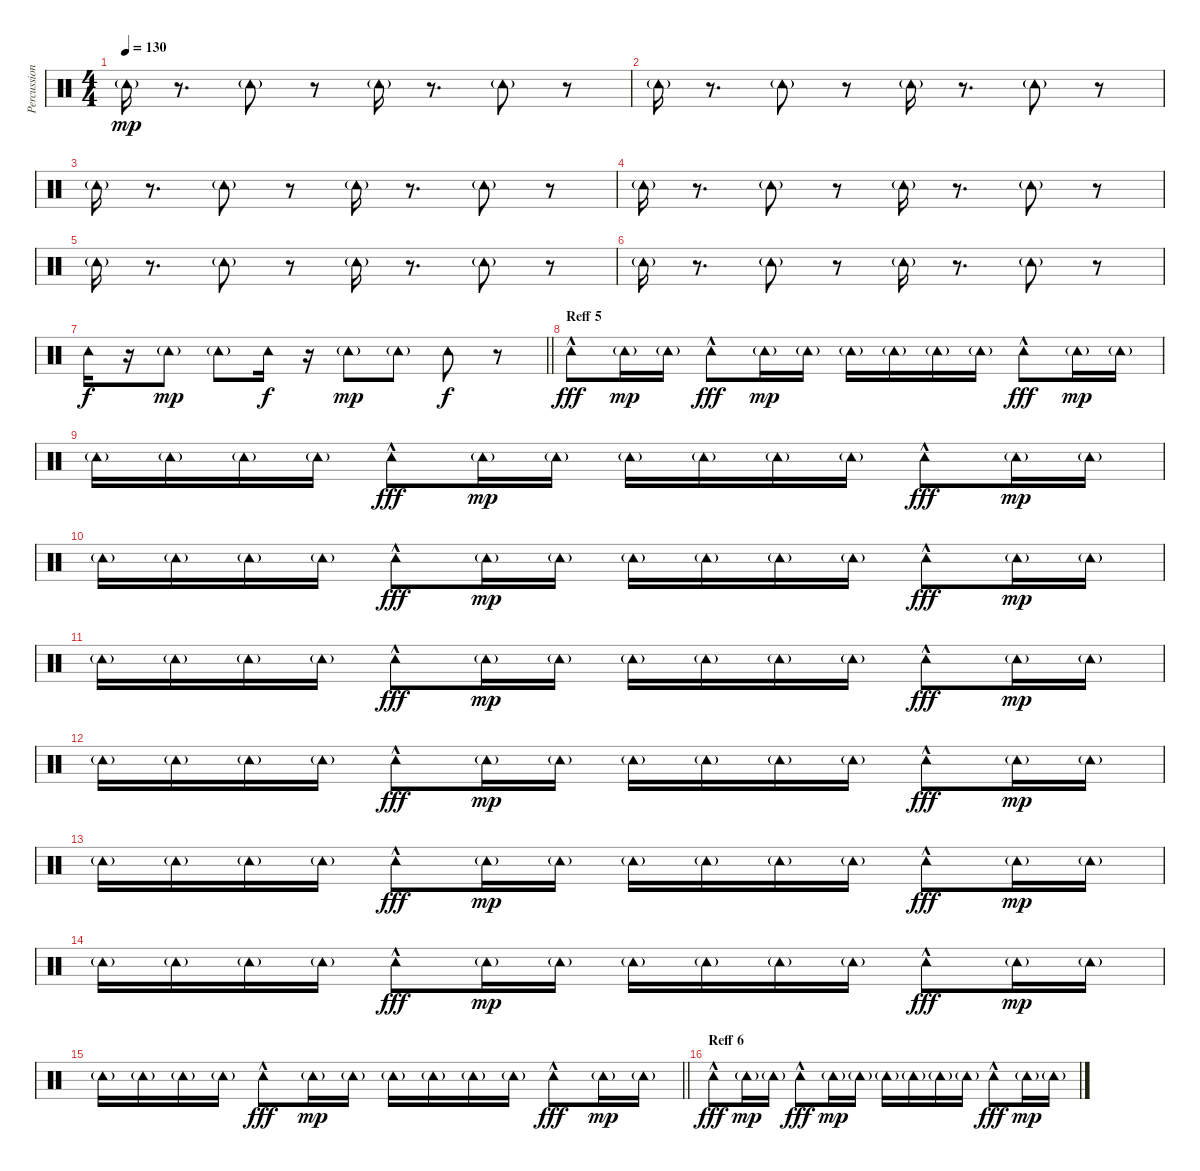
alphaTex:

\track ("Percussion 2" "Percussion") {instrument percussion}
\staff {score}
\articulation defaults
\ts (4 4)
\tempo 130
\clef neutral
\ks c "Tambourine (hit)"{g}.16{dy mp}
r.8{d} "Tambourine (hit)"{g}.8 r.8 "Tambourine (hit)"{g}.16 r.8{d} "Tambourine (hit)"{g}.8 r.8 |
"Tambourine (hit)"{g}.16 r.8{d} "Tambourine (hit)"{g}.8 r.8 "Tambourine (hit)"{g}.16 r.8{d} "Tambourine (hit)"{g}.8 r.8 |
"Tambourine (hit)"{g}.16 r.8{d} "Tambourine (hit)"{g}.8 r.8 "Tambourine (hit)"{g}.16 r.8{d} "Tambourine (hit)"{g}.8 r.8 |
"Tambourine (hit)"{g}.16 r.8{d} "Tambourine (hit)"{g}.8 r.8 "Tambourine (hit)"{g}.16 r.8{d} "Tambourine (hit)"{g}.8 r.8 |
"Tambourine (hit)"{g}.16 r.8{d} "Tambourine (hit)"{g}.8 r.8 "Tambourine (hit)"{g}.16 r.8{d} "Tambourine (hit)"{g}.8 r.8 |
"Tambourine (hit)"{g}.16 r.8{d} "Tambourine (hit)"{g}.8 r.8 "Tambourine (hit)"{g}.16 r.8{d} "Tambourine (hit)"{g}.8 r.8 |
\barLineRight lightlight "Tambourine (hit)".16{dy f}
r.16 "Tambourine (hit)"{g}.8{dy mp} "Tambourine (hit)"{g}.8 "Tambourine (hit)".16{dy f} r.16 "Tambourine (hit)"{g}.8{dy mp} "Tambourine (hit)"{g}.8 "Tambourine (hit)".8{dy f} r.8 |
\section ("" "Reff 5")
"Tambourine (hit)"{hac}.8{dy fff} "Tambourine (hit)"{g}.16{dy mp} "Tambourine (hit)"{g}.16 "Tambourine (hit)"{hac}.8{dy fff} "Tambourine (hit)"{g}.16{dy mp} "Tambourine (hit)"{g}.16 "Tambourine (hit)"{g}.16 "Tambourine (hit)"{g}.16 "Tambourine (hit)"{g}.16 "Tambourine (hit)"{g}.16 "Tambourine (hit)"{hac}.8{dy fff} "Tambourine (hit)"{g}.16{dy mp} "Tambourine (hit)"{g}.16 |
"Tambourine (hit)"{g}.16 "Tambourine (hit)"{g}.16 "Tambourine (hit)"{g}.16 "Tambourine (hit)"{g}.16 "Tambourine (hit)"{hac}.8{dy fff} "Tambourine (hit)"{g}.16{dy mp} "Tambourine (hit)"{g}.16 "Tambourine (hit)"{g}.16 "Tambourine (hit)"{g}.16 "Tambourine (hit)"{g}.16 "Tambourine (hit)"{g}.16 "Tambourine (hit)"{hac}.8{dy fff} "Tambourine (hit)"{g}.16{dy mp} "Tambourine (hit)"{g}.16 |
"Tambourine (hit)"{g}.16 "Tambourine (hit)"{g}.16 "Tambourine (hit)"{g}.16 "Tambourine (hit)"{g}.16 "Tambourine (hit)"{hac}.8{dy fff} "Tambourine (hit)"{g}.16{dy mp} "Tambourine (hit)"{g}.16 "Tambourine (hit)"{g}.16 "Tambourine (hit)"{g}.16 "Tambourine (hit)"{g}.16 "Tambourine (hit)"{g}.16 "Tambourine (hit)"{hac}.8{dy fff} "Tambourine (hit)"{g}.16{dy mp} "Tambourine (hit)"{g}.16 |
"Tambourine (hit)"{g}.16 "Tambourine (hit)"{g}.16 "Tambourine (hit)"{g}.16 "Tambourine (hit)"{g}.16 "Tambourine (hit)"{hac}.8{dy fff} "Tambourine (hit)"{g}.16{dy mp} "Tambourine (hit)"{g}.16 "Tambourine (hit)"{g}.16 "Tambourine (hit)"{g}.16 "Tambourine (hit)"{g}.16 "Tambourine (hit)"{g}.16 "Tambourine (hit)"{hac}.8{dy fff} "Tambourine (hit)"{g}.16{dy mp} "Tambourine (hit)"{g}.16 |
"Tambourine (hit)"{g}.16 "Tambourine (hit)"{g}.16 "Tambourine (hit)"{g}.16 "Tambourine (hit)"{g}.16 "Tambourine (hit)"{hac}.8{dy fff} "Tambourine (hit)"{g}.16{dy mp} "Tambourine (hit)"{g}.16 "Tambourine (hit)"{g}.16 "Tambourine (hit)"{g}.16 "Tambourine (hit)"{g}.16 "Tambourine (hit)"{g}.16 "Tambourine (hit)"{hac}.8{dy fff} "Tambourine (hit)"{g}.16{dy mp} "Tambourine (hit)"{g}.16 |
"Tambourine (hit)"{g}.16 "Tambourine (hit)"{g}.16 "Tambourine (hit)"{g}.16 "Tambourine (hit)"{g}.16 "Tambourine (hit)"{hac}.8{dy fff} "Tambourine (hit)"{g}.16{dy mp} "Tambourine (hit)"{g}.16 "Tambourine (hit)"{g}.16 "Tambourine (hit)"{g}.16 "Tambourine (hit)"{g}.16 "Tambourine (hit)"{g}.16 "Tambourine (hit)"{hac}.8{dy fff} "Tambourine (hit)"{g}.16{dy mp} "Tambourine (hit)"{g}.16 |
"Tambourine (hit)"{g}.16 "Tambourine (hit)"{g}.16 "Tambourine (hit)"{g}.16 "Tambourine (hit)"{g}.16 "Tambourine (hit)"{hac}.8{dy fff} "Tambourine (hit)"{g}.16{dy mp} "Tambourine (hit)"{g}.16 "Tambourine (hit)"{g}.16 "Tambourine (hit)"{g}.16 "Tambourine (hit)"{g}.16 "Tambourine (hit)"{g}.16 "Tambourine (hit)"{hac}.8{dy fff} "Tambourine (hit)"{g}.16{dy mp} "Tambourine (hit)"{g}.16 |
\barLineRight lightlight "Tambourine (hit)"{g}.16 "Tambourine (hit)"{g}.16 "Tambourine (hit)"{g}.16 "Tambourine (hit)"{g}.16 "Tambourine (hit)"{hac}.8{dy fff} "Tambourine (hit)"{g}.16{dy mp} "Tambourine (hit)"{g}.16 "Tambourine (hit)"{g}.16 "Tambourine (hit)"{g}.16 "Tambourine (hit)"{g}.16 "Tambourine (hit)"{g}.16 "Tambourine (hit)"{hac}.8{dy fff} "Tambourine (hit)"{g}.16{dy mp} "Tambourine (hit)"{g}.16
|
\section ("" "Reff 6")
"Tambourine (hit)"{hac}.8{dy fff} "Tambourine (hit)"{g}.16{dy mp} "Tambourine (hit)"{g}.16 "Tambourine (hit)"{hac}.8{dy fff} "Tambourine (hit)"{g}.16{dy mp} "Tambourine (hit)"{g}.16 "Tambourine (hit)"{g}.16 "Tambourine (hit)"{g}.16 "Tambourine (hit)"{g}.16 "Tambourine (hit)"{g}.16 "Tambourine (hit)"{hac}.8{dy fff} "Tambourine (hit)"{g}.16{dy mp} "Tambourine (hit)"{g}.16
